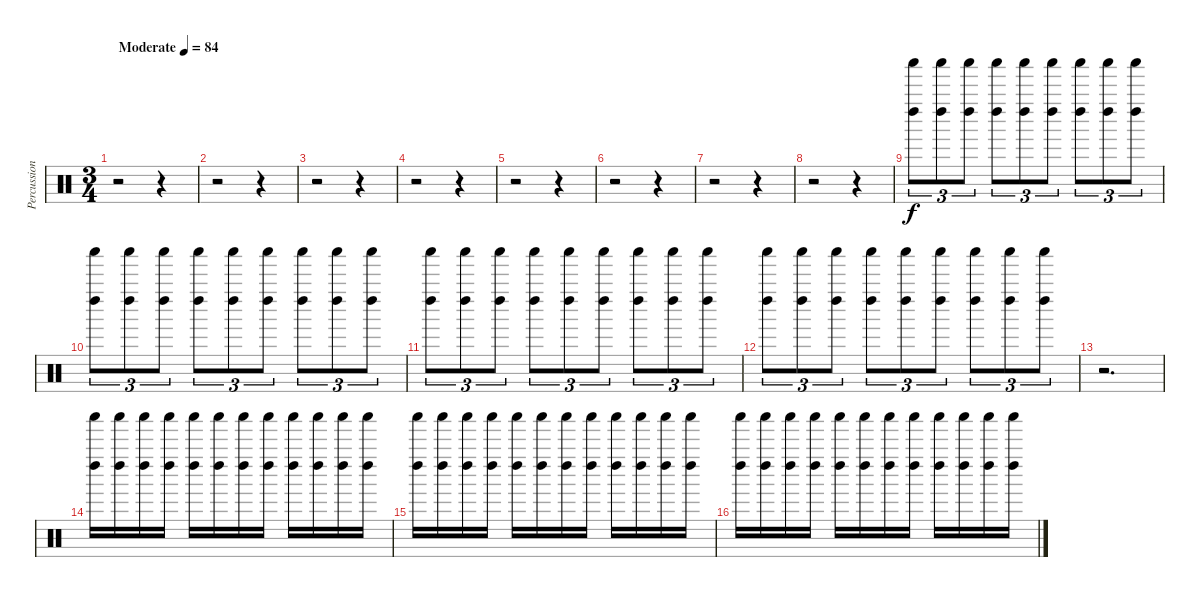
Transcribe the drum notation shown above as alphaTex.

\track ("Percussion" "Percussion") {instrument percussion}
\staff {score}
\articulation defaults
\ts (3 4)
\tempo (84 "Moderate")
\clef neutral
\ks c
r.2{dy f} r.4 |
r.2 r.4 |
r.2 r.4 |
r.2 r.4 |
r.2 r.4 |
r.2 r.4 |
r.2 r.4 |
r.2 r.4 |
("Left Maraca (hit)" "Shaker (hit)").8{tu (3 2) volume 0} ("Left Maraca (hit)" "Shaker (hit)").8{tu (3 2) volume 6} ("Left Maraca (hit)" "Shaker (hit)").8{tu (3 2)} ("Left Maraca (hit)" "Shaker (hit)").8{tu (3 2)} ("Left Maraca (hit)" "Shaker (hit)").8{tu (3 2)} ("Left Maraca (hit)" "Shaker (hit)").8{tu (3 2)} ("Left Maraca (hit)" "Shaker (hit)").8{tu (3 2)} ("Left Maraca (hit)" "Shaker (hit)").8{tu (3 2)} ("Left Maraca (hit)" "Shaker (hit)").8{tu (3 2)} |
("Left Maraca (hit)" "Shaker (hit)").8{tu (3 2)} ("Left Maraca (hit)" "Shaker (hit)").8{tu (3 2)} ("Left Maraca (hit)" "Shaker (hit)").8{tu (3 2)} ("Left Maraca (hit)" "Shaker (hit)").8{tu (3 2)} ("Left Maraca (hit)" "Shaker (hit)").8{tu (3 2)} ("Left Maraca (hit)" "Shaker (hit)").8{tu (3 2)} ("Left Maraca (hit)" "Shaker (hit)").8{tu (3 2)} ("Left Maraca (hit)" "Shaker (hit)").8{tu (3 2)} ("Left Maraca (hit)" "Shaker (hit)").8{tu (3 2)} |
("Left Maraca (hit)" "Shaker (hit)").8{tu (3 2)} ("Left Maraca (hit)" "Shaker (hit)").8{tu (3 2)} ("Left Maraca (hit)" "Shaker (hit)").8{tu (3 2)} ("Left Maraca (hit)" "Shaker (hit)").8{tu (3 2) volume 0} ("Left Maraca (hit)" "Shaker (hit)").8{tu (3 2)} ("Left Maraca (hit)" "Shaker (hit)").8{tu (3 2)} ("Left Maraca (hit)" "Shaker (hit)").8{tu (3 2)} ("Left Maraca (hit)" "Shaker (hit)").8{tu (3 2)} ("Left Maraca (hit)" "Shaker (hit)").8{tu (3 2)} |
("Left Maraca (hit)" "Shaker (hit)").8{tu (3 2)} ("Left Maraca (hit)" "Shaker (hit)").8{tu (3 2)} ("Left Maraca (hit)" "Shaker (hit)").8{tu (3 2)} ("Left Maraca (hit)" "Shaker (hit)").8{tu (3 2)} ("Left Maraca (hit)" "Shaker (hit)").8{tu (3 2)} ("Left Maraca (hit)" "Shaker (hit)").8{tu (3 2)} ("Left Maraca (hit)" "Shaker (hit)").8{tu (3 2)} ("Left Maraca (hit)" "Shaker (hit)").8{tu (3 2)} ("Left Maraca (hit)" "Shaker (hit)").8{tu (3 2)} |
r.2{d volume 0} |
("Left Maraca (hit)" "Shaker (hit)").16{volume 6} ("Left Maraca (hit)" "Shaker (hit)").16 ("Left Maraca (hit)" "Shaker (hit)").16 ("Left Maraca (hit)" "Shaker (hit)").16 ("Left Maraca (hit)" "Shaker (hit)").16 ("Left Maraca (hit)" "Shaker (hit)").16 ("Left Maraca (hit)" "Shaker (hit)").16 ("Left Maraca (hit)" "Shaker (hit)").16 ("Left Maraca (hit)" "Shaker (hit)").16 ("Left Maraca (hit)" "Shaker (hit)").16 ("Left Maraca (hit)" "Shaker (hit)").16 ("Left Maraca (hit)" "Shaker (hit)").16 |
("Left Maraca (hit)" "Shaker (hit)").16 ("Left Maraca (hit)" "Shaker (hit)").16 ("Left Maraca (hit)" "Shaker (hit)").16 ("Left Maraca (hit)" "Shaker (hit)").16 ("Left Maraca (hit)" "Shaker (hit)").16 ("Left Maraca (hit)" "Shaker (hit)").16 ("Left Maraca (hit)" "Shaker (hit)").16 ("Left Maraca (hit)" "Shaker (hit)").16 ("Left Maraca (hit)" "Shaker (hit)").16 ("Left Maraca (hit)" "Shaker (hit)").16 ("Left Maraca (hit)" "Shaker (hit)").16 ("Left Maraca (hit)" "Shaker (hit)").16 |
("Left Maraca (hit)" "Shaker (hit)").16 ("Left Maraca (hit)" "Shaker (hit)").16{volume 0} ("Left Maraca (hit)" "Shaker (hit)").16 ("Left Maraca (hit)" "Shaker (hit)").16 ("Left Maraca (hit)" "Shaker (hit)").16 ("Left Maraca (hit)" "Shaker (hit)").16 ("Left Maraca (hit)" "Shaker (hit)").16 ("Left Maraca (hit)" "Shaker (hit)").16 ("Left Maraca (hit)" "Shaker (hit)").16 ("Left Maraca (hit)" "Shaker (hit)").16 ("Left Maraca (hit)" "Shaker (hit)").16 ("Left Maraca (hit)" "Shaker (hit)").16
